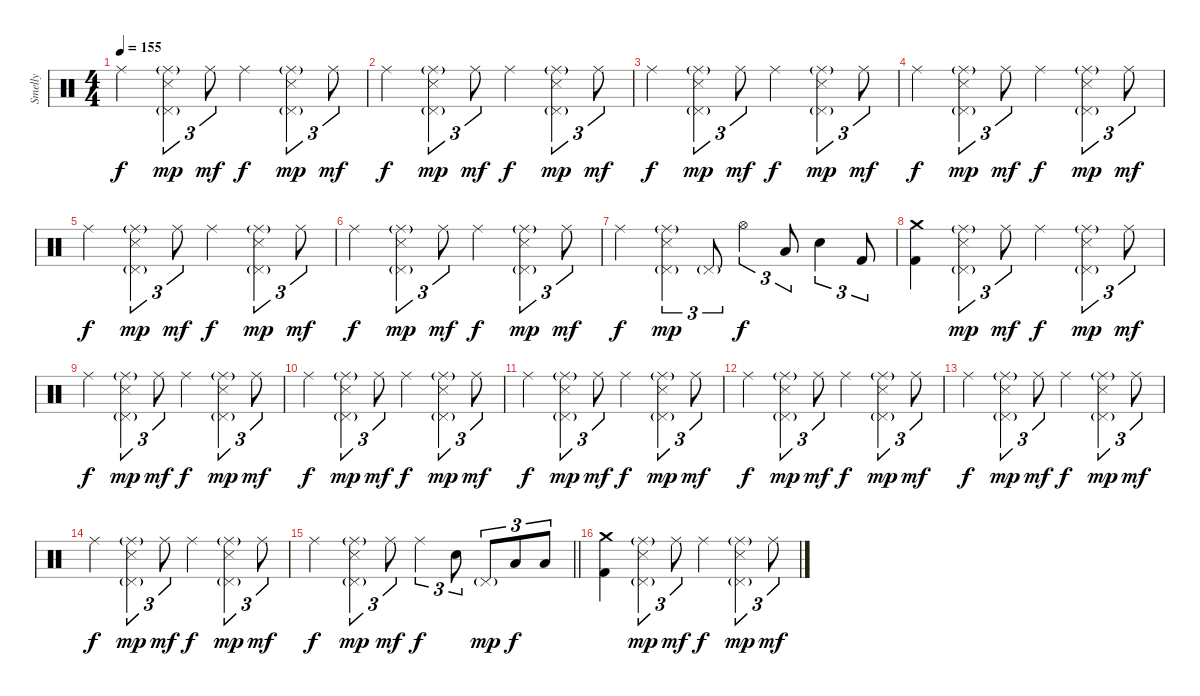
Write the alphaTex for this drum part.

\track ("Smelly" "Smelly") {instrument percussion}
\staff {score}
\articulation defaults
\ts (4 4)
\tempo 155
\clef neutral
\ks c "Ride (middle)".4{dy f}
("Ride (middle)"{g} "Pedal Hi-Hat (hit)"{g} "Snare (side stick) 3").4{tu (3 2) dy mp} "Ride (middle)".8{tu (3 2) dy mf} "Ride (middle)".4{dy f} ("Ride (middle)"{g} "Pedal Hi-Hat (hit)"{g} "Snare (side stick) 3").4{tu (3 2) dy mp} "Ride (middle)".8{tu (3 2) dy mf} |
"Ride (middle)".4{dy f} ("Ride (middle)"{g} "Pedal Hi-Hat (hit)"{g} "Snare (side stick) 3").4{tu (3 2) dy mp} "Ride (middle)".8{tu (3 2) dy mf} "Ride (middle)".4{dy f} ("Ride (middle)"{g} "Pedal Hi-Hat (hit)"{g} "Snare (side stick) 3").4{tu (3 2) dy mp} "Ride (middle)".8{tu (3 2) dy mf} |
"Ride (middle)".4{dy f} ("Ride (middle)"{g} "Pedal Hi-Hat (hit)"{g} "Snare (side stick) 3").4{tu (3 2) dy mp} "Ride (middle)".8{tu (3 2) dy mf} "Ride (middle)".4{dy f} ("Ride (middle)"{g} "Pedal Hi-Hat (hit)"{g} "Snare (side stick) 3").4{tu (3 2) dy mp} "Ride (middle)".8{tu (3 2) dy mf} |
"Ride (middle)".4{dy f} ("Ride (middle)"{g} "Pedal Hi-Hat (hit)"{g} "Snare (side stick) 3").4{tu (3 2) dy mp} "Ride (middle)".8{tu (3 2) dy mf} "Ride (middle)".4{dy f} ("Ride (middle)"{g} "Pedal Hi-Hat (hit)"{g} "Snare (side stick) 3").4{tu (3 2) dy mp} "Ride (middle)".8{tu (3 2) dy mf} |
"Ride (middle)".4{dy f} ("Ride (middle)"{g} "Pedal Hi-Hat (hit)"{g} "Snare (side stick) 3").4{tu (3 2) dy mp} "Ride (middle)".8{tu (3 2) dy mf} "Ride (middle)".4{dy f} ("Ride (middle)"{g} "Pedal Hi-Hat (hit)"{g} "Snare (side stick) 3").4{tu (3 2) dy mp} "Ride (middle)".8{tu (3 2) dy mf} |
"Ride (middle)".4{dy f} ("Ride (middle)"{g} "Pedal Hi-Hat (hit)"{g} "Snare (side stick) 3").4{tu (3 2) dy mp} "Ride (middle)".8{tu (3 2) dy mf} "Ride (middle)".4{dy f} ("Ride (middle)"{g} "Pedal Hi-Hat (hit)"{g} "Snare (side stick) 3").4{tu (3 2) dy mp} "Ride (middle)".8{tu (3 2) dy mf} |
"Ride (middle)".4{dy f} ("Ride (middle)"{g} "Pedal Hi-Hat (hit)"{g} "Snare (side stick) 3").4{tu (3 2) dy mp} "Pedal Hi-Hat (hit)"{g}.8{tu (3 2)} "Hi-Hat (open)".4{tu (3 2) dy f} "Low Tom (hit)".8{tu (3 2)} "Electric Snare (hit)".4{tu (3 2)} "Kick (hit) 2".8{tu (3 2)} |
("Crash medium (hit)" "Kick (hit) 2").4 ("Ride (middle)"{g} "Pedal Hi-Hat (hit)"{g} "Snare (side stick) 3").4{tu (3 2) dy mp} "Ride (middle)".8{tu (3 2) dy mf} "Ride (middle)".4{dy f} ("Ride (middle)"{g} "Pedal Hi-Hat (hit)"{g} "Snare (side stick) 3").4{tu (3 2) dy mp} "Ride (middle)".8{tu (3 2) dy mf} |
"Ride (middle)".4{dy f} ("Ride (middle)"{g} "Pedal Hi-Hat (hit)"{g} "Snare (side stick) 3").4{tu (3 2) dy mp} "Ride (middle)".8{tu (3 2) dy mf} "Ride (middle)".4{dy f} ("Ride (middle)"{g} "Pedal Hi-Hat (hit)"{g} "Snare (side stick) 3").4{tu (3 2) dy mp} "Ride (middle)".8{tu (3 2) dy mf} |
"Ride (middle)".4{dy f} ("Ride (middle)"{g} "Pedal Hi-Hat (hit)"{g} "Snare (side stick) 3").4{tu (3 2) dy mp} "Ride (middle)".8{tu (3 2) dy mf} "Ride (middle)".4{dy f} ("Ride (middle)"{g} "Pedal Hi-Hat (hit)"{g} "Snare (side stick) 3").4{tu (3 2) dy mp} "Ride (middle)".8{tu (3 2) dy mf} |
"Ride (middle)".4{dy f} ("Ride (middle)"{g} "Pedal Hi-Hat (hit)"{g} "Snare (side stick) 3").4{tu (3 2) dy mp} "Ride (middle)".8{tu (3 2) dy mf} "Ride (middle)".4{dy f} ("Ride (middle)"{g} "Pedal Hi-Hat (hit)"{g} "Snare (side stick) 3").4{tu (3 2) dy mp} "Ride (middle)".8{tu (3 2) dy mf} |
"Ride (middle)".4{dy f} ("Ride (middle)"{g} "Pedal Hi-Hat (hit)"{g} "Snare (side stick) 3").4{tu (3 2) dy mp} "Ride (middle)".8{tu (3 2) dy mf} "Ride (middle)".4{dy f} ("Ride (middle)"{g} "Pedal Hi-Hat (hit)"{g} "Snare (side stick) 3").4{tu (3 2) dy mp} "Ride (middle)".8{tu (3 2) dy mf} |
"Ride (middle)".4{dy f} ("Ride (middle)"{g} "Pedal Hi-Hat (hit)"{g} "Snare (side stick) 3").4{tu (3 2) dy mp} "Ride (middle)".8{tu (3 2) dy mf} "Ride (middle)".4{dy f} ("Ride (middle)"{g} "Pedal Hi-Hat (hit)"{g} "Snare (side stick) 3").4{tu (3 2) dy mp} "Ride (middle)".8{tu (3 2) dy mf} |
"Ride (middle)".4{dy f} ("Ride (middle)"{g} "Pedal Hi-Hat (hit)"{g} "Snare (side stick) 3").4{tu (3 2) dy mp} "Ride (middle)".8{tu (3 2) dy mf} "Ride (middle)".4{dy f} ("Ride (middle)"{g} "Pedal Hi-Hat (hit)"{g} "Snare (side stick) 3").4{tu (3 2) dy mp} "Ride (middle)".8{tu (3 2) dy mf} |
\barLineRight lightlight "Ride (middle)".4{dy f}
("Ride (middle)"{g} "Pedal Hi-Hat (hit)"{g} "Snare (side stick) 3").4{tu (3 2) dy mp} "Ride (middle)".8{tu (3 2) dy mf} "Ride (middle)".4{tu (3 2) dy f} "Electric Snare (hit)".8{tu (3 2)} "Pedal Hi-Hat (hit)"{g}.8{tu (3 2) dy mp} "Low Tom (hit)".8{tu (3 2) dy f} "Low Tom (hit)".8{tu (3 2)} |
\section ("" "")
("Crash medium (hit)" "Kick (hit) 2").4 ("Ride (middle)"{g} "Pedal Hi-Hat (hit)"{g} "Snare (side stick) 3").4{tu (3 2) dy mp} "Ride (middle)".8{tu (3 2) dy mf} "Ride (middle)".4{dy f} ("Ride (middle)"{g} "Pedal Hi-Hat (hit)"{g} "Snare (side stick) 3").4{tu (3 2) dy mp} "Ride (middle)".8{tu (3 2) dy mf}
